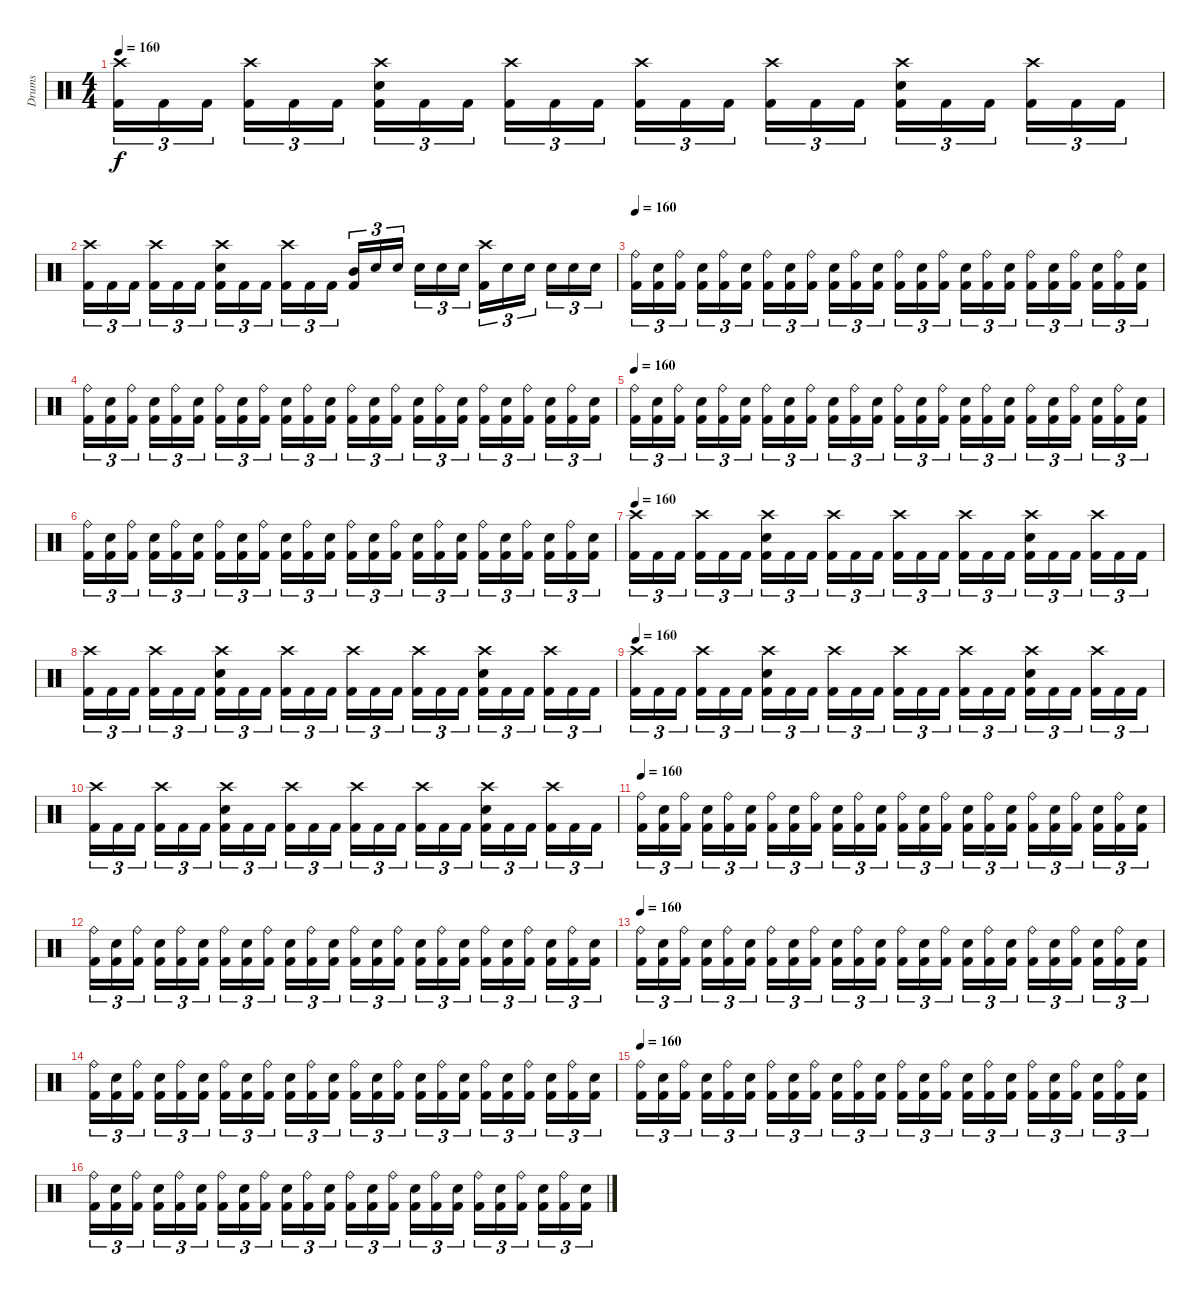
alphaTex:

\track ("Drums" "Drums") {instrument percussion}
\staff {score}
\articulation defaults
\ts (4 4)
\tempo 160
\clef neutral
\ks c
("Crash high (hit)" "Kick (hit) 2").16{tu (3 2) dy f} "Kick (hit) 2".16{tu (3 2)} "Kick (hit) 2".16{tu (3 2)} ("Crash high (hit)" "Kick (hit) 2").16{tu (3 2)} "Kick (hit) 2".16{tu (3 2)} "Kick (hit) 2".16{tu (3 2)} ("Crash high (hit)" "Electric Snare (hit)" "Kick (hit) 2").16{tu (3 2)} "Kick (hit) 2".16{tu (3 2)} "Kick (hit) 2".16{tu (3 2)} ("Crash high (hit)" "Kick (hit) 2").16{tu (3 2)} "Kick (hit) 2".16{tu (3 2)} "Kick (hit) 2".16{tu (3 2)} ("Crash high (hit)" "Kick (hit) 2").16{tu (3 2)} "Kick (hit) 2".16{tu (3 2)} "Kick (hit) 2".16{tu (3 2)} ("Crash high (hit)" "Kick (hit) 2").16{tu (3 2)} "Kick (hit) 2".16{tu (3 2)} "Kick (hit) 2".16{tu (3 2)} ("Crash high (hit)" "Electric Snare (hit)" "Kick (hit) 2").16{tu (3 2)} "Kick (hit) 2".16{tu (3 2)} "Kick (hit) 2".16{tu (3 2)} ("Crash high (hit)" "Kick (hit) 2").16{tu (3 2)} "Kick (hit) 2".16{tu (3 2)} "Kick (hit) 2".16{tu (3 2)} |
("Crash high (hit)" "Kick (hit) 2").16{tu (3 2)} "Kick (hit) 2".16{tu (3 2)} "Kick (hit) 2".16{tu (3 2)} ("Crash high (hit)" "Kick (hit) 2").16{tu (3 2)} "Kick (hit) 2".16{tu (3 2)} "Kick (hit) 2".16{tu (3 2)} ("Crash high (hit)" "Electric Snare (hit)" "Kick (hit) 2").16{tu (3 2)} "Kick (hit) 2".16{tu (3 2)} "Kick (hit) 2".16{tu (3 2)} ("Crash high (hit)" "Kick (hit) 2").16{tu (3 2)} "Kick (hit) 2".16{tu (3 2)} "Kick (hit) 2".16{tu (3 2)} ("Mid Tom (hit)" "Kick (hit) 2").16{tu (3 2)} "Electric Snare (hit)".16{tu (3 2)} "Electric Snare (hit)".16{tu (3 2)} "Electric Snare (hit)".16{tu (3 2)} "Electric Snare (hit)".16{tu (3 2)} "Electric Snare (hit)".16{tu (3 2)} ("Crash high (hit)" "Kick (hit) 2").16{tu (3 2)} "Electric Snare (hit)".16{tu (3 2)} "Electric Snare (hit)".16{tu (3 2)} "Electric Snare (hit)".16{tu (3 2)} "Electric Snare (hit)".16{tu (3 2)} "Electric Snare (hit)".16{tu (3 2)} |
\tempo 160
("Ride (bell)" "Kick (hit) 2").16{tu (3 2)} ("Electric Snare (hit)" "Kick (hit) 2").16{tu (3 2)} ("Ride (bell)" "Kick (hit) 2").16{tu (3 2)} ("Electric Snare (hit)" "Kick (hit) 2").16{tu (3 2)} ("Ride (bell)" "Kick (hit) 2").16{tu (3 2)} ("Electric Snare (hit)" "Kick (hit) 2").16{tu (3 2)} ("Ride (bell)" "Kick (hit) 2").16{tu (3 2)} ("Electric Snare (hit)" "Kick (hit) 2").16{tu (3 2)} ("Ride (bell)" "Kick (hit) 2").16{tu (3 2)} ("Electric Snare (hit)" "Kick (hit) 2").16{tu (3 2)} ("Ride (bell)" "Kick (hit) 2").16{tu (3 2)} ("Electric Snare (hit)" "Kick (hit) 2").16{tu (3 2)} ("Ride (bell)" "Kick (hit) 2").16{tu (3 2)} ("Electric Snare (hit)" "Kick (hit) 2").16{tu (3 2)} ("Ride (bell)" "Kick (hit) 2").16{tu (3 2)} ("Electric Snare (hit)" "Kick (hit) 2").16{tu (3 2)} ("Ride (bell)" "Kick (hit) 2").16{tu (3 2)} ("Electric Snare (hit)" "Kick (hit) 2").16{tu (3 2)} ("Ride (bell)" "Kick (hit) 2").16{tu (3 2)} ("Electric Snare (hit)" "Kick (hit) 2").16{tu (3 2)} ("Ride (bell)" "Kick (hit) 2").16{tu (3 2)} ("Electric Snare (hit)" "Kick (hit) 2").16{tu (3 2)} ("Ride (bell)" "Kick (hit) 2").16{tu (3 2)} ("Electric Snare (hit)" "Kick (hit) 2").16{tu (3 2)} |
("Ride (bell)" "Kick (hit) 2").16{tu (3 2)} ("Electric Snare (hit)" "Kick (hit) 2").16{tu (3 2)} ("Ride (bell)" "Kick (hit) 2").16{tu (3 2)} ("Electric Snare (hit)" "Kick (hit) 2").16{tu (3 2)} ("Ride (bell)" "Kick (hit) 2").16{tu (3 2)} ("Electric Snare (hit)" "Kick (hit) 2").16{tu (3 2)} ("Ride (bell)" "Kick (hit) 2").16{tu (3 2)} ("Electric Snare (hit)" "Kick (hit) 2").16{tu (3 2)} ("Ride (bell)" "Kick (hit) 2").16{tu (3 2)} ("Electric Snare (hit)" "Kick (hit) 2").16{tu (3 2)} ("Ride (bell)" "Kick (hit) 2").16{tu (3 2)} ("Electric Snare (hit)" "Kick (hit) 2").16{tu (3 2)} ("Ride (bell)" "Kick (hit) 2").16{tu (3 2)} ("Electric Snare (hit)" "Kick (hit) 2").16{tu (3 2)} ("Ride (bell)" "Kick (hit) 2").16{tu (3 2)} ("Electric Snare (hit)" "Kick (hit) 2").16{tu (3 2)} ("Ride (bell)" "Kick (hit) 2").16{tu (3 2)} ("Electric Snare (hit)" "Kick (hit) 2").16{tu (3 2)} ("Ride (bell)" "Kick (hit) 2").16{tu (3 2)} ("Electric Snare (hit)" "Kick (hit) 2").16{tu (3 2)} ("Ride (bell)" "Kick (hit) 2").16{tu (3 2)} ("Electric Snare (hit)" "Kick (hit) 2").16{tu (3 2)} ("Ride (bell)" "Kick (hit) 2").16{tu (3 2)} ("Electric Snare (hit)" "Kick (hit) 2").16{tu (3 2)} |
\tempo 160
("Ride (bell)" "Kick (hit) 2").16{tu (3 2)} ("Electric Snare (hit)" "Kick (hit) 2").16{tu (3 2)} ("Ride (bell)" "Kick (hit) 2").16{tu (3 2)} ("Electric Snare (hit)" "Kick (hit) 2").16{tu (3 2)} ("Ride (bell)" "Kick (hit) 2").16{tu (3 2)} ("Electric Snare (hit)" "Kick (hit) 2").16{tu (3 2)} ("Ride (bell)" "Kick (hit) 2").16{tu (3 2)} ("Electric Snare (hit)" "Kick (hit) 2").16{tu (3 2)} ("Ride (bell)" "Kick (hit) 2").16{tu (3 2)} ("Electric Snare (hit)" "Kick (hit) 2").16{tu (3 2)} ("Ride (bell)" "Kick (hit) 2").16{tu (3 2)} ("Electric Snare (hit)" "Kick (hit) 2").16{tu (3 2)} ("Ride (bell)" "Kick (hit) 2").16{tu (3 2)} ("Electric Snare (hit)" "Kick (hit) 2").16{tu (3 2)} ("Ride (bell)" "Kick (hit) 2").16{tu (3 2)} ("Electric Snare (hit)" "Kick (hit) 2").16{tu (3 2)} ("Ride (bell)" "Kick (hit) 2").16{tu (3 2)} ("Electric Snare (hit)" "Kick (hit) 2").16{tu (3 2)} ("Ride (bell)" "Kick (hit) 2").16{tu (3 2)} ("Electric Snare (hit)" "Kick (hit) 2").16{tu (3 2)} ("Ride (bell)" "Kick (hit) 2").16{tu (3 2)} ("Electric Snare (hit)" "Kick (hit) 2").16{tu (3 2)} ("Ride (bell)" "Kick (hit) 2").16{tu (3 2)} ("Electric Snare (hit)" "Kick (hit) 2").16{tu (3 2)} |
("Ride (bell)" "Kick (hit) 2").16{tu (3 2)} ("Electric Snare (hit)" "Kick (hit) 2").16{tu (3 2)} ("Ride (bell)" "Kick (hit) 2").16{tu (3 2)} ("Electric Snare (hit)" "Kick (hit) 2").16{tu (3 2)} ("Ride (bell)" "Kick (hit) 2").16{tu (3 2)} ("Electric Snare (hit)" "Kick (hit) 2").16{tu (3 2)} ("Ride (bell)" "Kick (hit) 2").16{tu (3 2)} ("Electric Snare (hit)" "Kick (hit) 2").16{tu (3 2)} ("Ride (bell)" "Kick (hit) 2").16{tu (3 2)} ("Electric Snare (hit)" "Kick (hit) 2").16{tu (3 2)} ("Ride (bell)" "Kick (hit) 2").16{tu (3 2)} ("Electric Snare (hit)" "Kick (hit) 2").16{tu (3 2)} ("Ride (bell)" "Kick (hit) 2").16{tu (3 2)} ("Electric Snare (hit)" "Kick (hit) 2").16{tu (3 2)} ("Ride (bell)" "Kick (hit) 2").16{tu (3 2)} ("Electric Snare (hit)" "Kick (hit) 2").16{tu (3 2)} ("Ride (bell)" "Kick (hit) 2").16{tu (3 2)} ("Electric Snare (hit)" "Kick (hit) 2").16{tu (3 2)} ("Ride (bell)" "Kick (hit) 2").16{tu (3 2)} ("Electric Snare (hit)" "Kick (hit) 2").16{tu (3 2)} ("Ride (bell)" "Kick (hit) 2").16{tu (3 2)} ("Electric Snare (hit)" "Kick (hit) 2").16{tu (3 2)} ("Ride (bell)" "Kick (hit) 2").16{tu (3 2)} ("Electric Snare (hit)" "Kick (hit) 2").16{tu (3 2)} |
\tempo 160
("Crash high (hit)" "Kick (hit) 2").16{tu (3 2)} "Kick (hit) 2".16{tu (3 2)} "Kick (hit) 2".16{tu (3 2)} ("Crash high (hit)" "Kick (hit) 2").16{tu (3 2)} "Kick (hit) 2".16{tu (3 2)} "Kick (hit) 2".16{tu (3 2)} ("Crash high (hit)" "Electric Snare (hit)" "Kick (hit) 2").16{tu (3 2)} "Kick (hit) 2".16{tu (3 2)} "Kick (hit) 2".16{tu (3 2)} ("Crash high (hit)" "Kick (hit) 2").16{tu (3 2)} "Kick (hit) 2".16{tu (3 2)} "Kick (hit) 2".16{tu (3 2)} ("Crash high (hit)" "Kick (hit) 2").16{tu (3 2)} "Kick (hit) 2".16{tu (3 2)} "Kick (hit) 2".16{tu (3 2)} ("Crash high (hit)" "Kick (hit) 2").16{tu (3 2)} "Kick (hit) 2".16{tu (3 2)} "Kick (hit) 2".16{tu (3 2)} ("Crash high (hit)" "Electric Snare (hit)" "Kick (hit) 2").16{tu (3 2)} "Kick (hit) 2".16{tu (3 2)} "Kick (hit) 2".16{tu (3 2)} ("Crash high (hit)" "Kick (hit) 2").16{tu (3 2)} "Kick (hit) 2".16{tu (3 2)} "Kick (hit) 2".16{tu (3 2)} |
("Crash high (hit)" "Kick (hit) 2").16{tu (3 2)} "Kick (hit) 2".16{tu (3 2)} "Kick (hit) 2".16{tu (3 2)} ("Crash high (hit)" "Kick (hit) 2").16{tu (3 2)} "Kick (hit) 2".16{tu (3 2)} "Kick (hit) 2".16{tu (3 2)} ("Crash high (hit)" "Electric Snare (hit)" "Kick (hit) 2").16{tu (3 2)} "Kick (hit) 2".16{tu (3 2)} "Kick (hit) 2".16{tu (3 2)} ("Crash high (hit)" "Kick (hit) 2").16{tu (3 2)} "Kick (hit) 2".16{tu (3 2)} "Kick (hit) 2".16{tu (3 2)} ("Crash high (hit)" "Kick (hit) 2").16{tu (3 2)} "Kick (hit) 2".16{tu (3 2)} "Kick (hit) 2".16{tu (3 2)} ("Crash high (hit)" "Kick (hit) 2").16{tu (3 2)} "Kick (hit) 2".16{tu (3 2)} "Kick (hit) 2".16{tu (3 2)} ("Crash high (hit)" "Electric Snare (hit)" "Kick (hit) 2").16{tu (3 2)} "Kick (hit) 2".16{tu (3 2)} "Kick (hit) 2".16{tu (3 2)} ("Crash high (hit)" "Kick (hit) 2").16{tu (3 2)} "Kick (hit) 2".16{tu (3 2)} "Kick (hit) 2".16{tu (3 2)} |
\tempo 160
("Crash high (hit)" "Kick (hit) 2").16{tu (3 2)} "Kick (hit) 2".16{tu (3 2)} "Kick (hit) 2".16{tu (3 2)} ("Crash high (hit)" "Kick (hit) 2").16{tu (3 2)} "Kick (hit) 2".16{tu (3 2)} "Kick (hit) 2".16{tu (3 2)} ("Crash high (hit)" "Electric Snare (hit)" "Kick (hit) 2").16{tu (3 2)} "Kick (hit) 2".16{tu (3 2)} "Kick (hit) 2".16{tu (3 2)} ("Crash high (hit)" "Kick (hit) 2").16{tu (3 2)} "Kick (hit) 2".16{tu (3 2)} "Kick (hit) 2".16{tu (3 2)} ("Crash high (hit)" "Kick (hit) 2").16{tu (3 2)} "Kick (hit) 2".16{tu (3 2)} "Kick (hit) 2".16{tu (3 2)} ("Crash high (hit)" "Kick (hit) 2").16{tu (3 2)} "Kick (hit) 2".16{tu (3 2)} "Kick (hit) 2".16{tu (3 2)} ("Crash high (hit)" "Electric Snare (hit)" "Kick (hit) 2").16{tu (3 2)} "Kick (hit) 2".16{tu (3 2)} "Kick (hit) 2".16{tu (3 2)} ("Crash high (hit)" "Kick (hit) 2").16{tu (3 2)} "Kick (hit) 2".16{tu (3 2)} "Kick (hit) 2".16{tu (3 2)} |
("Crash high (hit)" "Kick (hit) 2").16{tu (3 2)} "Kick (hit) 2".16{tu (3 2)} "Kick (hit) 2".16{tu (3 2)} ("Crash high (hit)" "Kick (hit) 2").16{tu (3 2)} "Kick (hit) 2".16{tu (3 2)} "Kick (hit) 2".16{tu (3 2)} ("Crash high (hit)" "Electric Snare (hit)" "Kick (hit) 2").16{tu (3 2)} "Kick (hit) 2".16{tu (3 2)} "Kick (hit) 2".16{tu (3 2)} ("Crash high (hit)" "Kick (hit) 2").16{tu (3 2)} "Kick (hit) 2".16{tu (3 2)} "Kick (hit) 2".16{tu (3 2)} ("Crash high (hit)" "Kick (hit) 2").16{tu (3 2)} "Kick (hit) 2".16{tu (3 2)} "Kick (hit) 2".16{tu (3 2)} ("Crash high (hit)" "Kick (hit) 2").16{tu (3 2)} "Kick (hit) 2".16{tu (3 2)} "Kick (hit) 2".16{tu (3 2)} ("Crash high (hit)" "Electric Snare (hit)" "Kick (hit) 2").16{tu (3 2)} "Kick (hit) 2".16{tu (3 2)} "Kick (hit) 2".16{tu (3 2)} ("Crash high (hit)" "Kick (hit) 2").16{tu (3 2)} "Kick (hit) 2".16{tu (3 2)} "Kick (hit) 2".16{tu (3 2)} |
\tempo 160
("Ride (bell)" "Kick (hit) 2").16{tu (3 2)} ("Electric Snare (hit)" "Kick (hit) 2").16{tu (3 2)} ("Ride (bell)" "Kick (hit) 2").16{tu (3 2)} ("Electric Snare (hit)" "Kick (hit) 2").16{tu (3 2)} ("Ride (bell)" "Kick (hit) 2").16{tu (3 2)} ("Electric Snare (hit)" "Kick (hit) 2").16{tu (3 2)} ("Ride (bell)" "Kick (hit) 2").16{tu (3 2)} ("Electric Snare (hit)" "Kick (hit) 2").16{tu (3 2)} ("Ride (bell)" "Kick (hit) 2").16{tu (3 2)} ("Electric Snare (hit)" "Kick (hit) 2").16{tu (3 2)} ("Ride (bell)" "Kick (hit) 2").16{tu (3 2)} ("Electric Snare (hit)" "Kick (hit) 2").16{tu (3 2)} ("Ride (bell)" "Kick (hit) 2").16{tu (3 2)} ("Electric Snare (hit)" "Kick (hit) 2").16{tu (3 2)} ("Ride (bell)" "Kick (hit) 2").16{tu (3 2)} ("Electric Snare (hit)" "Kick (hit) 2").16{tu (3 2)} ("Ride (bell)" "Kick (hit) 2").16{tu (3 2)} ("Electric Snare (hit)" "Kick (hit) 2").16{tu (3 2)} ("Ride (bell)" "Kick (hit) 2").16{tu (3 2)} ("Electric Snare (hit)" "Kick (hit) 2").16{tu (3 2)} ("Ride (bell)" "Kick (hit) 2").16{tu (3 2)} ("Electric Snare (hit)" "Kick (hit) 2").16{tu (3 2)} ("Ride (bell)" "Kick (hit) 2").16{tu (3 2)} ("Electric Snare (hit)" "Kick (hit) 2").16{tu (3 2)} |
("Ride (bell)" "Kick (hit) 2").16{tu (3 2)} ("Electric Snare (hit)" "Kick (hit) 2").16{tu (3 2)} ("Ride (bell)" "Kick (hit) 2").16{tu (3 2)} ("Electric Snare (hit)" "Kick (hit) 2").16{tu (3 2)} ("Ride (bell)" "Kick (hit) 2").16{tu (3 2)} ("Electric Snare (hit)" "Kick (hit) 2").16{tu (3 2)} ("Ride (bell)" "Kick (hit) 2").16{tu (3 2)} ("Electric Snare (hit)" "Kick (hit) 2").16{tu (3 2)} ("Ride (bell)" "Kick (hit) 2").16{tu (3 2)} ("Electric Snare (hit)" "Kick (hit) 2").16{tu (3 2)} ("Ride (bell)" "Kick (hit) 2").16{tu (3 2)} ("Electric Snare (hit)" "Kick (hit) 2").16{tu (3 2)} ("Ride (bell)" "Kick (hit) 2").16{tu (3 2)} ("Electric Snare (hit)" "Kick (hit) 2").16{tu (3 2)} ("Ride (bell)" "Kick (hit) 2").16{tu (3 2)} ("Electric Snare (hit)" "Kick (hit) 2").16{tu (3 2)} ("Ride (bell)" "Kick (hit) 2").16{tu (3 2)} ("Electric Snare (hit)" "Kick (hit) 2").16{tu (3 2)} ("Ride (bell)" "Kick (hit) 2").16{tu (3 2)} ("Electric Snare (hit)" "Kick (hit) 2").16{tu (3 2)} ("Ride (bell)" "Kick (hit) 2").16{tu (3 2)} ("Electric Snare (hit)" "Kick (hit) 2").16{tu (3 2)} ("Ride (bell)" "Kick (hit) 2").16{tu (3 2)} ("Electric Snare (hit)" "Kick (hit) 2").16{tu (3 2)} |
\tempo 160
("Ride (bell)" "Kick (hit) 2").16{tu (3 2)} ("Electric Snare (hit)" "Kick (hit) 2").16{tu (3 2)} ("Ride (bell)" "Kick (hit) 2").16{tu (3 2)} ("Electric Snare (hit)" "Kick (hit) 2").16{tu (3 2)} ("Ride (bell)" "Kick (hit) 2").16{tu (3 2)} ("Electric Snare (hit)" "Kick (hit) 2").16{tu (3 2)} ("Ride (bell)" "Kick (hit) 2").16{tu (3 2)} ("Electric Snare (hit)" "Kick (hit) 2").16{tu (3 2)} ("Ride (bell)" "Kick (hit) 2").16{tu (3 2)} ("Electric Snare (hit)" "Kick (hit) 2").16{tu (3 2)} ("Ride (bell)" "Kick (hit) 2").16{tu (3 2)} ("Electric Snare (hit)" "Kick (hit) 2").16{tu (3 2)} ("Ride (bell)" "Kick (hit) 2").16{tu (3 2)} ("Electric Snare (hit)" "Kick (hit) 2").16{tu (3 2)} ("Ride (bell)" "Kick (hit) 2").16{tu (3 2)} ("Electric Snare (hit)" "Kick (hit) 2").16{tu (3 2)} ("Ride (bell)" "Kick (hit) 2").16{tu (3 2)} ("Electric Snare (hit)" "Kick (hit) 2").16{tu (3 2)} ("Ride (bell)" "Kick (hit) 2").16{tu (3 2)} ("Electric Snare (hit)" "Kick (hit) 2").16{tu (3 2)} ("Ride (bell)" "Kick (hit) 2").16{tu (3 2)} ("Electric Snare (hit)" "Kick (hit) 2").16{tu (3 2)} ("Ride (bell)" "Kick (hit) 2").16{tu (3 2)} ("Electric Snare (hit)" "Kick (hit) 2").16{tu (3 2)} |
("Ride (bell)" "Kick (hit) 2").16{tu (3 2)} ("Electric Snare (hit)" "Kick (hit) 2").16{tu (3 2)} ("Ride (bell)" "Kick (hit) 2").16{tu (3 2)} ("Electric Snare (hit)" "Kick (hit) 2").16{tu (3 2)} ("Ride (bell)" "Kick (hit) 2").16{tu (3 2)} ("Electric Snare (hit)" "Kick (hit) 2").16{tu (3 2)} ("Ride (bell)" "Kick (hit) 2").16{tu (3 2)} ("Electric Snare (hit)" "Kick (hit) 2").16{tu (3 2)} ("Ride (bell)" "Kick (hit) 2").16{tu (3 2)} ("Electric Snare (hit)" "Kick (hit) 2").16{tu (3 2)} ("Ride (bell)" "Kick (hit) 2").16{tu (3 2)} ("Electric Snare (hit)" "Kick (hit) 2").16{tu (3 2)} ("Ride (bell)" "Kick (hit) 2").16{tu (3 2)} ("Electric Snare (hit)" "Kick (hit) 2").16{tu (3 2)} ("Ride (bell)" "Kick (hit) 2").16{tu (3 2)} ("Electric Snare (hit)" "Kick (hit) 2").16{tu (3 2)} ("Ride (bell)" "Kick (hit) 2").16{tu (3 2)} ("Electric Snare (hit)" "Kick (hit) 2").16{tu (3 2)} ("Ride (bell)" "Kick (hit) 2").16{tu (3 2)} ("Electric Snare (hit)" "Kick (hit) 2").16{tu (3 2)} ("Ride (bell)" "Kick (hit) 2").16{tu (3 2)} ("Electric Snare (hit)" "Kick (hit) 2").16{tu (3 2)} ("Ride (bell)" "Kick (hit) 2").16{tu (3 2)} ("Electric Snare (hit)" "Kick (hit) 2").16{tu (3 2)} |
\tempo 160
("Ride (bell)" "Kick (hit) 2").16{tu (3 2)} ("Electric Snare (hit)" "Kick (hit) 2").16{tu (3 2)} ("Ride (bell)" "Kick (hit) 2").16{tu (3 2)} ("Electric Snare (hit)" "Kick (hit) 2").16{tu (3 2)} ("Ride (bell)" "Kick (hit) 2").16{tu (3 2)} ("Electric Snare (hit)" "Kick (hit) 2").16{tu (3 2)} ("Ride (bell)" "Kick (hit) 2").16{tu (3 2)} ("Electric Snare (hit)" "Kick (hit) 2").16{tu (3 2)} ("Ride (bell)" "Kick (hit) 2").16{tu (3 2)} ("Electric Snare (hit)" "Kick (hit) 2").16{tu (3 2)} ("Ride (bell)" "Kick (hit) 2").16{tu (3 2)} ("Electric Snare (hit)" "Kick (hit) 2").16{tu (3 2)} ("Ride (bell)" "Kick (hit) 2").16{tu (3 2)} ("Electric Snare (hit)" "Kick (hit) 2").16{tu (3 2)} ("Ride (bell)" "Kick (hit) 2").16{tu (3 2)} ("Electric Snare (hit)" "Kick (hit) 2").16{tu (3 2)} ("Ride (bell)" "Kick (hit) 2").16{tu (3 2)} ("Electric Snare (hit)" "Kick (hit) 2").16{tu (3 2)} ("Ride (bell)" "Kick (hit) 2").16{tu (3 2)} ("Electric Snare (hit)" "Kick (hit) 2").16{tu (3 2)} ("Ride (bell)" "Kick (hit) 2").16{tu (3 2)} ("Electric Snare (hit)" "Kick (hit) 2").16{tu (3 2)} ("Ride (bell)" "Kick (hit) 2").16{tu (3 2)} ("Electric Snare (hit)" "Kick (hit) 2").16{tu (3 2)} |
("Ride (bell)" "Kick (hit) 2").16{tu (3 2)} ("Electric Snare (hit)" "Kick (hit) 2").16{tu (3 2)} ("Ride (bell)" "Kick (hit) 2").16{tu (3 2)} ("Electric Snare (hit)" "Kick (hit) 2").16{tu (3 2)} ("Ride (bell)" "Kick (hit) 2").16{tu (3 2)} ("Electric Snare (hit)" "Kick (hit) 2").16{tu (3 2)} ("Ride (bell)" "Kick (hit) 2").16{tu (3 2)} ("Electric Snare (hit)" "Kick (hit) 2").16{tu (3 2)} ("Ride (bell)" "Kick (hit) 2").16{tu (3 2)} ("Electric Snare (hit)" "Kick (hit) 2").16{tu (3 2)} ("Ride (bell)" "Kick (hit) 2").16{tu (3 2)} ("Electric Snare (hit)" "Kick (hit) 2").16{tu (3 2)} ("Ride (bell)" "Kick (hit) 2").16{tu (3 2)} ("Electric Snare (hit)" "Kick (hit) 2").16{tu (3 2)} ("Ride (bell)" "Kick (hit) 2").16{tu (3 2)} ("Electric Snare (hit)" "Kick (hit) 2").16{tu (3 2)} ("Ride (bell)" "Kick (hit) 2").16{tu (3 2)} ("Electric Snare (hit)" "Kick (hit) 2").16{tu (3 2)} ("Ride (bell)" "Kick (hit) 2").16{tu (3 2)} ("Electric Snare (hit)" "Kick (hit) 2").16{tu (3 2)} ("Ride (bell)" "Kick (hit) 2").16{tu (3 2)} ("Electric Snare (hit)" "Kick (hit) 2").16{tu (3 2)} ("Ride (bell)" "Kick (hit) 2").16{tu (3 2)} ("Electric Snare (hit)" "Kick (hit) 2").16{tu (3 2)}
